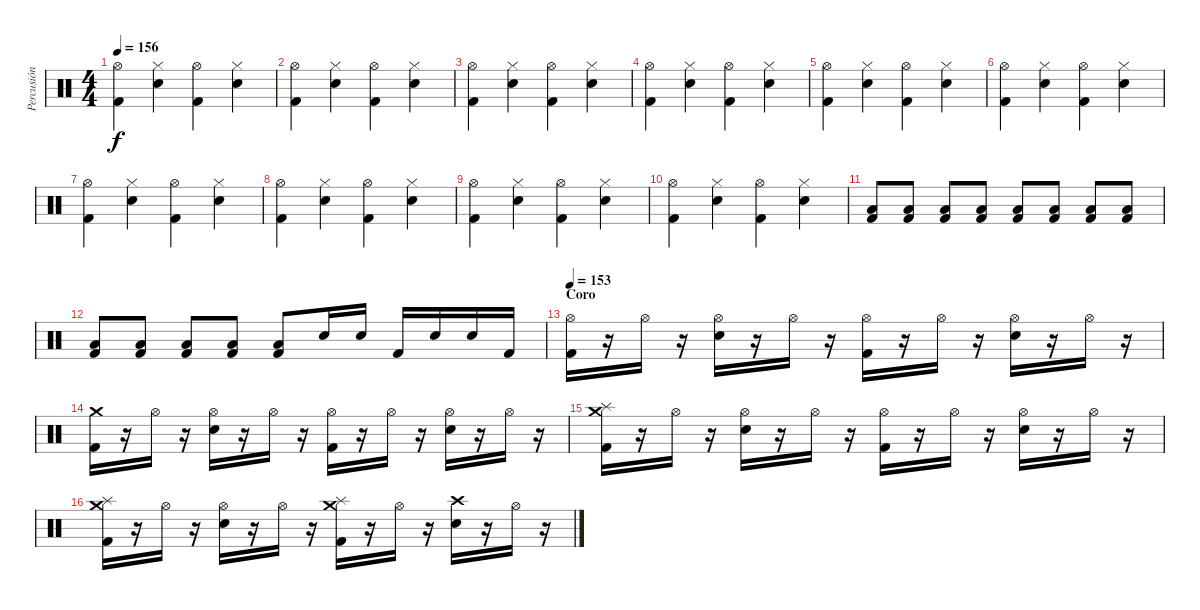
\track ("Percusión" "Percusión") {instrument percussion}
\staff {score}
\articulation defaults
\ts (4 4)
\tempo 156
\clef neutral
\ks c
("Kick (hit) 2" "Hi-Hat (open)").4{dy f} ("Electric Snare (hit)" "Hi-Hat (closed)").4 ("Kick (hit) 2" "Hi-Hat (open)").4 ("Electric Snare (hit)" "Hi-Hat (closed)").4 |
("Kick (hit) 2" "Hi-Hat (open)").4 ("Electric Snare (hit)" "Hi-Hat (closed)").4 ("Kick (hit) 2" "Hi-Hat (open)").4 ("Electric Snare (hit)" "Hi-Hat (closed)").4 |
("Kick (hit) 2" "Hi-Hat (open)").4 ("Electric Snare (hit)" "Hi-Hat (closed)").4 ("Kick (hit) 2" "Hi-Hat (open)").4 ("Electric Snare (hit)" "Hi-Hat (closed)").4 |
("Kick (hit) 2" "Hi-Hat (open)").4 ("Electric Snare (hit)" "Hi-Hat (closed)").4 ("Kick (hit) 2" "Hi-Hat (open)").4 ("Electric Snare (hit)" "Hi-Hat (closed)").4 |
("Kick (hit) 2" "Hi-Hat (open)").4 ("Electric Snare (hit)" "Hi-Hat (closed)").4 ("Kick (hit) 2" "Hi-Hat (open)").4 ("Electric Snare (hit)" "Hi-Hat (closed)").4 |
("Kick (hit) 2" "Hi-Hat (open)").4 ("Electric Snare (hit)" "Hi-Hat (closed)").4 ("Kick (hit) 2" "Hi-Hat (open)").4 ("Electric Snare (hit)" "Hi-Hat (closed)").4 |
("Kick (hit) 2" "Hi-Hat (open)").4 ("Electric Snare (hit)" "Hi-Hat (closed)").4 ("Kick (hit) 2" "Hi-Hat (open)").4 ("Electric Snare (hit)" "Hi-Hat (closed)").4 |
("Kick (hit) 2" "Hi-Hat (open)").4 ("Electric Snare (hit)" "Hi-Hat (closed)").4 ("Kick (hit) 2" "Hi-Hat (open)").4 ("Electric Snare (hit)" "Hi-Hat (closed)").4 |
("Kick (hit) 2" "Hi-Hat (open)").4 ("Electric Snare (hit)" "Hi-Hat (closed)").4 ("Kick (hit) 2" "Hi-Hat (open)").4 ("Electric Snare (hit)" "Hi-Hat (closed)").4 |
("Kick (hit) 2" "Hi-Hat (open)").4 ("Electric Snare (hit)" "Hi-Hat (closed)").4 ("Kick (hit) 2" "Hi-Hat (open)").4 ("Electric Snare (hit)" "Hi-Hat (closed)").4 |
("Kick (hit) 2" "Low Floor Tom (hit)").8 ("Kick (hit) 2" "Low Floor Tom (hit)").8 ("Kick (hit) 2" "Low Floor Tom (hit)").8 ("Kick (hit) 2" "Low Floor Tom (hit)").8 ("Kick (hit) 2" "Low Floor Tom (hit)").8 ("Kick (hit) 2" "Low Floor Tom (hit)").8 ("Kick (hit) 2" "Low Floor Tom (hit)").8 ("Kick (hit) 2" "Low Floor Tom (hit)").8 |
("Kick (hit) 2" "Low Floor Tom (hit)").8 ("Kick (hit) 2" "Low Floor Tom (hit)").8 ("Kick (hit) 2" "Low Floor Tom (hit)").8 ("Kick (hit) 2" "Low Floor Tom (hit)").8 ("Kick (hit) 2" "Low Floor Tom (hit)").8 "Electric Snare (hit)".16 "Electric Snare (hit)".16 "Kick (hit) 2".16 "Electric Snare (hit)".16 "Electric Snare (hit)".16 "Kick (hit) 2".16 |
\section ("" "Coro")
\tempo 153
("Kick (hit) 2" "Hi-Hat (open)").16 r.16 "Hi-Hat (open)".16 r.16 ("Electric Snare (hit)" "Hi-Hat (open)").16 r.16 "Hi-Hat (open)".16 r.16 ("Kick (hit) 2" "Hi-Hat (open)").16 r.16 "Hi-Hat (open)".16 r.16 ("Electric Snare (hit)" "Hi-Hat (open)").16 r.16 "Hi-Hat (open)".16 r.16 |
("Kick (hit) 2" "Crash medium (hit)").16 r.16 "Hi-Hat (open)".16 r.16 ("Electric Snare (hit)" "Hi-Hat (open)").16 r.16 "Hi-Hat (open)".16 r.16 ("Kick (hit) 2" "Hi-Hat (open)").16 r.16 "Hi-Hat (open)".16 r.16 ("Electric Snare (hit)" "Hi-Hat (open)").16 r.16 "Hi-Hat (open)".16 r.16 |
("Kick (hit) 2" "Crash medium (hit)" "Splash (hit)").16 r.16 "Hi-Hat (open)".16 r.16 ("Electric Snare (hit)" "Hi-Hat (open)").16 r.16 "Hi-Hat (open)".16 r.16 ("Kick (hit) 2" "Hi-Hat (open)").16 r.16 "Hi-Hat (open)".16 r.16 ("Electric Snare (hit)" "Hi-Hat (open)").16 r.16 "Hi-Hat (open)".16 r.16 |
("Kick (hit) 2" "Crash medium (hit)" "Splash (hit)").16 r.16 "Hi-Hat (open)".16 r.16 ("Electric Snare (hit)" "Hi-Hat (open)").16 r.16 "Hi-Hat (open)".16 r.16 ("Kick (hit) 2" "Crash medium (hit)" "Splash (hit)").16 r.16 "Hi-Hat (open)".16 r.16 ("Electric Snare (hit)" "Crash high (hit)").16 r.16 "Hi-Hat (open)".16 r.16
